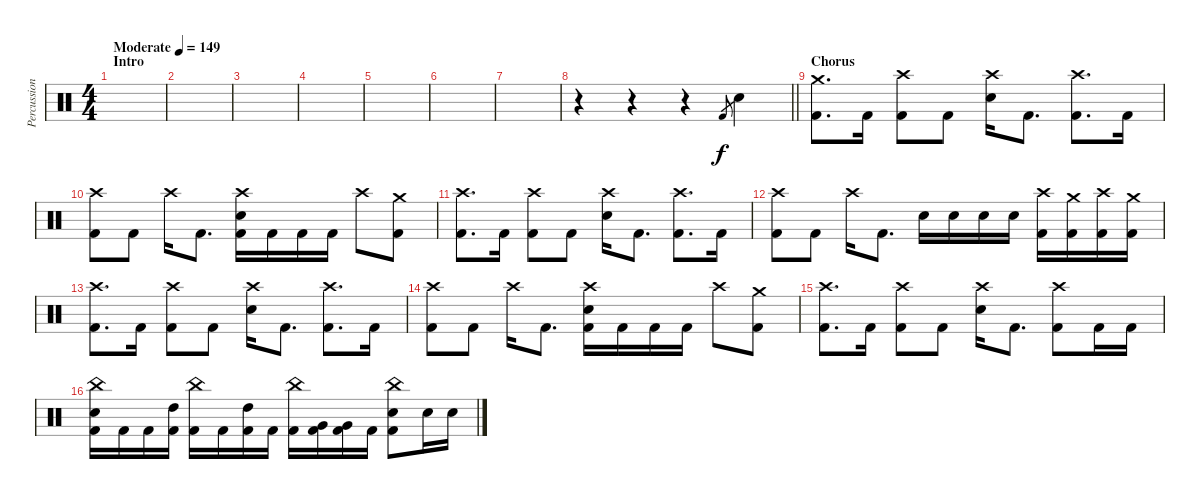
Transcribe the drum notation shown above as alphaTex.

\track ("Percussions" "Percussion") {instrument percussion}
\staff {score}
\articulation defaults
\ts (4 4)
\section ("" "Intro")
\tempo (149 "Moderate")
\clef neutral
\ks c
|
|
|
|
|
|
|
\barLineRight lightlight
r.4 r.4 r.4 "Kick (hit) 2".8{gr} "Snare (hit) 2".4 |
\section ("" "Chorus")
("Crash medium (hit)" "Kick (hit) 2").8{d} "Kick (hit) 2".16 ("Crash high (hit)" "Kick (hit) 2").8 "Kick (hit) 2".8 ("Crash high (hit)" "Snare (hit) 2").16 "Kick (hit) 2".8{d} ("Crash high (hit)" "Kick (hit) 2").8{d} "Kick (hit) 2".16 |
("Crash high (hit)" "Kick (hit) 2").8 "Kick (hit) 2".8 "Crash high (hit)".16 "Kick (hit) 2".8{d} ("Crash high (hit)" "Snare (hit) 2" "Kick (hit) 2").16 "Kick (hit) 2".16 "Kick (hit) 2".16 "Kick (hit) 2".16 "Crash high (hit)".8 ("Crash medium (hit)" "Kick (hit) 2").8 |
("Crash high (hit)" "Kick (hit) 2").8{d} "Kick (hit) 2".16 ("Crash high (hit)" "Kick (hit) 2").8 "Kick (hit) 2".8 ("Crash high (hit)" "Snare (hit) 2").16 "Kick (hit) 2".8{d} ("Crash high (hit)" "Kick (hit) 2").8{d} "Kick (hit) 2".16 |
("Crash high (hit)" "Kick (hit) 2").8 "Kick (hit) 2".8 "Crash high (hit)".16 "Kick (hit) 2".8{d} "Snare (hit) 2".16 "Snare (hit) 2".16 "Snare (hit) 2".16 "Snare (hit) 2".16 ("Crash high (hit)" "Kick (hit) 2").16 ("Crash medium (hit)" "Kick (hit) 2").16 ("Crash high (hit)" "Kick (hit) 2").16 ("Crash medium (hit)" "Kick (hit) 2").16 |
("Crash high (hit)" "Kick (hit) 2").8{d} "Kick (hit) 2".16 ("Crash high (hit)" "Kick (hit) 2").8 "Kick (hit) 2".8 ("Crash high (hit)" "Snare (hit) 2").16 "Kick (hit) 2".8{d} ("Crash high (hit)" "Kick (hit) 2").8{d} "Kick (hit) 2".16 |
("Crash high (hit)" "Kick (hit) 2").8 "Kick (hit) 2".8 "Crash high (hit)".16 "Kick (hit) 2".8{d} ("Crash high (hit)" "Snare (hit) 2" "Kick (hit) 2").16 "Kick (hit) 2".16 "Kick (hit) 2".16 "Kick (hit) 2".16 "Crash high (hit)".8 ("Crash medium (hit)" "Kick (hit) 2").8 |
("Crash high (hit)" "Kick (hit) 2").8{d} "Kick (hit) 2".16 ("Crash high (hit)" "Kick (hit) 2").8 "Kick (hit) 2".8 ("Crash high (hit)" "Snare (hit) 2").16 "Kick (hit) 2".8{d} ("Crash high (hit)" "Kick (hit) 2").8 "Kick (hit) 2".16 "Kick (hit) 2".16 |
("China (hit)" "Snare (hit) 2" "Kick (hit) 2").16 "Kick (hit) 2".16 "Kick (hit) 2".16 ("High Tom (hit)" "Kick (hit) 2").16 ("China (hit)" "Kick (hit) 2").16 "Kick (hit) 2".16 ("High Tom (hit)" "Kick (hit) 2").16 "Kick (hit) 2".16 ("China (hit)" "Kick (hit) 2").16 ("Very Low Tom (hit)" "Kick (hit) 2").16 ("Very Low Tom (hit)" "Kick (hit) 2").16 "Kick (hit) 2".16 ("China (hit)" "Snare (hit) 2" "Kick (hit) 2").8 "Snare (hit) 2".16 "Snare (hit) 2".16
